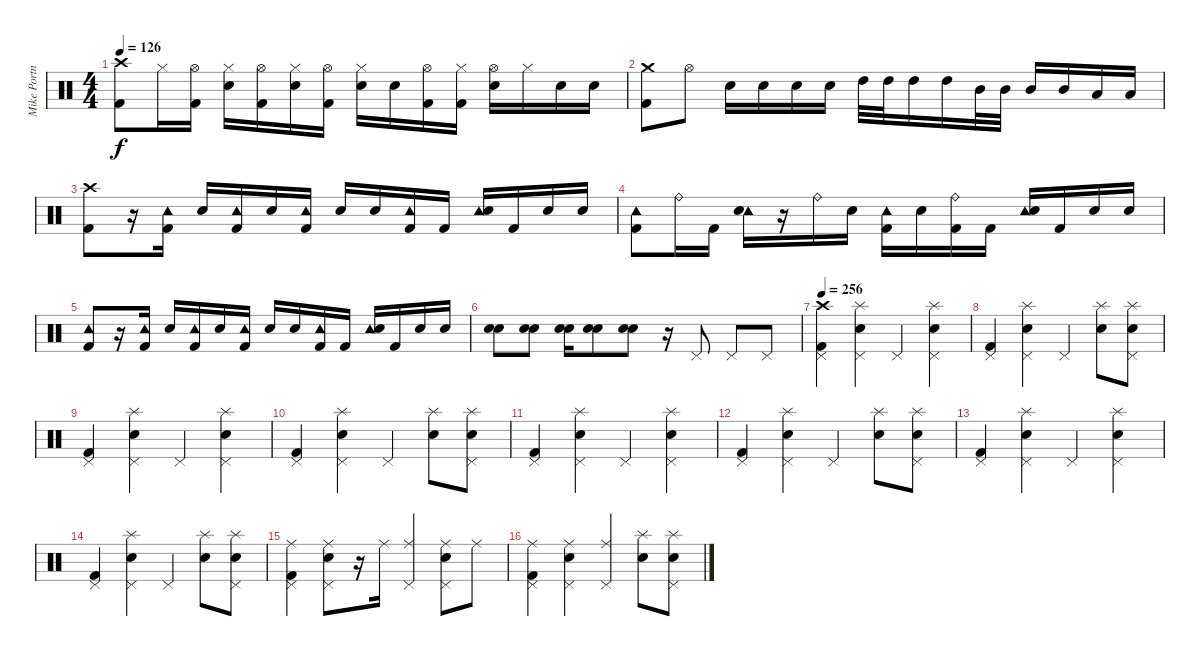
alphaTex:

\track ("Mike Portnoy" "Mike Portn") {instrument percussion}
\staff {score}
\articulation defaults
\ts (4 4)
\tempo 126
\clef neutral
\ks c
("Crash high (hit)" "Kick (hit) 2").8{dy f} "Hi-Hat (closed)".16 ("Hi-Hat (open)" "Kick (hit) 2").16 ("Hi-Hat (closed)" "Snare (hit) 2").16 ("Hi-Hat (open)" "Kick (hit) 2").16 ("Hi-Hat (closed)" "Snare (hit) 2").16 ("Hi-Hat (open)" "Kick (hit) 2").16 ("Hi-Hat (closed)" "Snare (hit) 2").16 "Snare (hit) 2".16 ("Hi-Hat (open)" "Kick (hit) 2").16 ("Hi-Hat (closed)" "Kick (hit) 2").16 ("Hi-Hat (open)" "Snare (hit) 2").16 "Hi-Hat (closed)".16 "Snare (hit) 2".16 "Snare (hit) 2".16 |
("Crash medium (hit)" "Kick (hit) 2").8 "Hi-Hat (open)".8 "Snare (hit) 2".16 "Snare (hit) 2".16 "Snare (hit) 2".16 "Snare (hit) 2".16 "High Tom (hit)".32 "High Tom (hit)".32 "High Tom (hit)".16 "High Tom (hit)".16 "Mid Tom (hit)".32 "Mid Tom (hit)".32 "Mid Tom (hit)".16 "Mid Tom (hit)".16 "Low Tom (hit)".16 "Low Tom (hit)".16 |
("Crash high (hit)" "Kick (hit) 2").8 r.16 ("Tambourine (hit)" "Kick (hit) 2").16 "Snare (hit) 2".16 ("Tambourine (hit)" "Kick (hit) 2").16 "Snare (hit) 2".16 ("Tambourine (hit)" "Kick (hit) 2").16 "Snare (hit) 2".16 "Snare (hit) 2".16 ("Tambourine (hit)" "Kick (hit) 2").16 "Kick (hit) 2".16 ("Tambourine (hit)" "Snare (hit) 2").16 "Kick (hit) 2".16 "Snare (hit) 2".16 "Snare (hit) 2".16 |
("Tambourine (hit)" "Kick (hit) 2").8 "Ride (bell)".16 "Kick (hit) 2".16 ("Tambourine (hit)" "Snare (hit) 2").16 r.16 "Ride (bell)".16 "Snare (hit) 2".16 ("Tambourine (hit)" "Kick (hit) 2").16 "Snare (hit) 2".16 ("Ride (bell)" "Kick (hit) 2").16 "Kick (hit) 2".16 ("Tambourine (hit)" "Snare (hit) 2").16 "Kick (hit) 2".16 "Snare (hit) 2".16 "Snare (hit) 2".16 |
("Tambourine (hit)" "Kick (hit) 2").8 r.16 ("Tambourine (hit)" "Kick (hit) 2").16 "Snare (hit) 2".16 ("Tambourine (hit)" "Kick (hit) 2").16 "Snare (hit) 2".16 ("Tambourine (hit)" "Kick (hit) 2").16 "Snare (hit) 2".16 "Snare (hit) 2".16 ("Tambourine (hit)" "Kick (hit) 2").16 "Kick (hit) 2".16 ("Tambourine (hit)" "Snare (hit) 2").16 "Kick (hit) 2".16 "Snare (hit) 2".16 "Snare (hit) 2".16 |
("Snare (hit) 2" "Snare (hit) 2").8 ("Snare (hit) 2" "Snare (hit) 2").8 ("Snare (hit) 2" "Snare (hit) 2").16 ("Snare (hit) 2" "Snare (hit) 2").8 ("Snare (hit) 2" "Snare (hit) 2").8 r.16 "Pedal Hi-Hat (hit)".8 "Pedal Hi-Hat (hit)".8 "Pedal Hi-Hat (hit)".8 |
\tempo 256
("Crash high (hit)" "Kick (hit) 2" "Pedal Hi-Hat (hit)").4 ("Splash (hit)" "Snare (hit) 2" "Pedal Hi-Hat (hit)").4 "Pedal Hi-Hat (hit)".4 ("Splash (hit)" "Snare (hit) 2" "Pedal Hi-Hat (hit)").4 |
("Kick (hit) 2" "Pedal Hi-Hat (hit)").4 ("Splash (hit)" "Snare (hit) 2" "Pedal Hi-Hat (hit)").4 "Pedal Hi-Hat (hit)".4 ("Splash (hit)" "Snare (hit) 2").8 ("Splash (hit)" "Snare (hit) 2" "Pedal Hi-Hat (hit)").8 |
("Kick (hit) 2" "Pedal Hi-Hat (hit)").4 ("Splash (hit)" "Snare (hit) 2" "Pedal Hi-Hat (hit)").4 "Pedal Hi-Hat (hit)".4 ("Splash (hit)" "Snare (hit) 2" "Pedal Hi-Hat (hit)").4 |
("Kick (hit) 2" "Pedal Hi-Hat (hit)").4 ("Splash (hit)" "Snare (hit) 2" "Pedal Hi-Hat (hit)").4 "Pedal Hi-Hat (hit)".4 ("Splash (hit)" "Snare (hit) 2").8 ("Splash (hit)" "Snare (hit) 2" "Pedal Hi-Hat (hit)").8 |
("Kick (hit) 2" "Pedal Hi-Hat (hit)").4 ("Splash (hit)" "Snare (hit) 2" "Pedal Hi-Hat (hit)").4 "Pedal Hi-Hat (hit)".4 ("Splash (hit)" "Snare (hit) 2" "Pedal Hi-Hat (hit)").4 |
("Kick (hit) 2" "Pedal Hi-Hat (hit)").4 ("Splash (hit)" "Snare (hit) 2" "Pedal Hi-Hat (hit)").4 "Pedal Hi-Hat (hit)".4 ("Splash (hit)" "Snare (hit) 2").8 ("Splash (hit)" "Snare (hit) 2" "Pedal Hi-Hat (hit)").8 |
("Kick (hit) 2" "Pedal Hi-Hat (hit)").4 ("Splash (hit)" "Snare (hit) 2" "Pedal Hi-Hat (hit)").4 "Pedal Hi-Hat (hit)".4 ("Splash (hit)" "Snare (hit) 2" "Pedal Hi-Hat (hit)").4 |
("Kick (hit) 2" "Pedal Hi-Hat (hit)").4 ("Splash (hit)" "Snare (hit) 2" "Pedal Hi-Hat (hit)").4 "Pedal Hi-Hat (hit)".4 ("Splash (hit)" "Snare (hit) 2").8 ("Splash (hit)" "Snare (hit) 2" "Pedal Hi-Hat (hit)").8 |
("Ride (middle)" "Kick (hit) 2" "Pedal Hi-Hat (hit)").4 ("Ride (middle)" "Snare (hit) 2" "Pedal Hi-Hat (hit)").8 r.16 "Ride (middle)".16 ("Ride (middle)" "Pedal Hi-Hat (hit)").4 ("Ride (middle)" "Snare (hit) 2" "Pedal Hi-Hat (hit)").8 "Ride (middle)".8 |
("Ride (middle)" "Kick (hit) 2" "Pedal Hi-Hat (hit)").4 ("Ride (middle)" "Snare (hit) 2" "Pedal Hi-Hat (hit)").4 ("Ride (middle)" "Pedal Hi-Hat (hit)").4 ("Splash (hit)" "Snare (hit) 2").8 ("Splash (hit)" "Snare (hit) 2" "Pedal Hi-Hat (hit)").8
